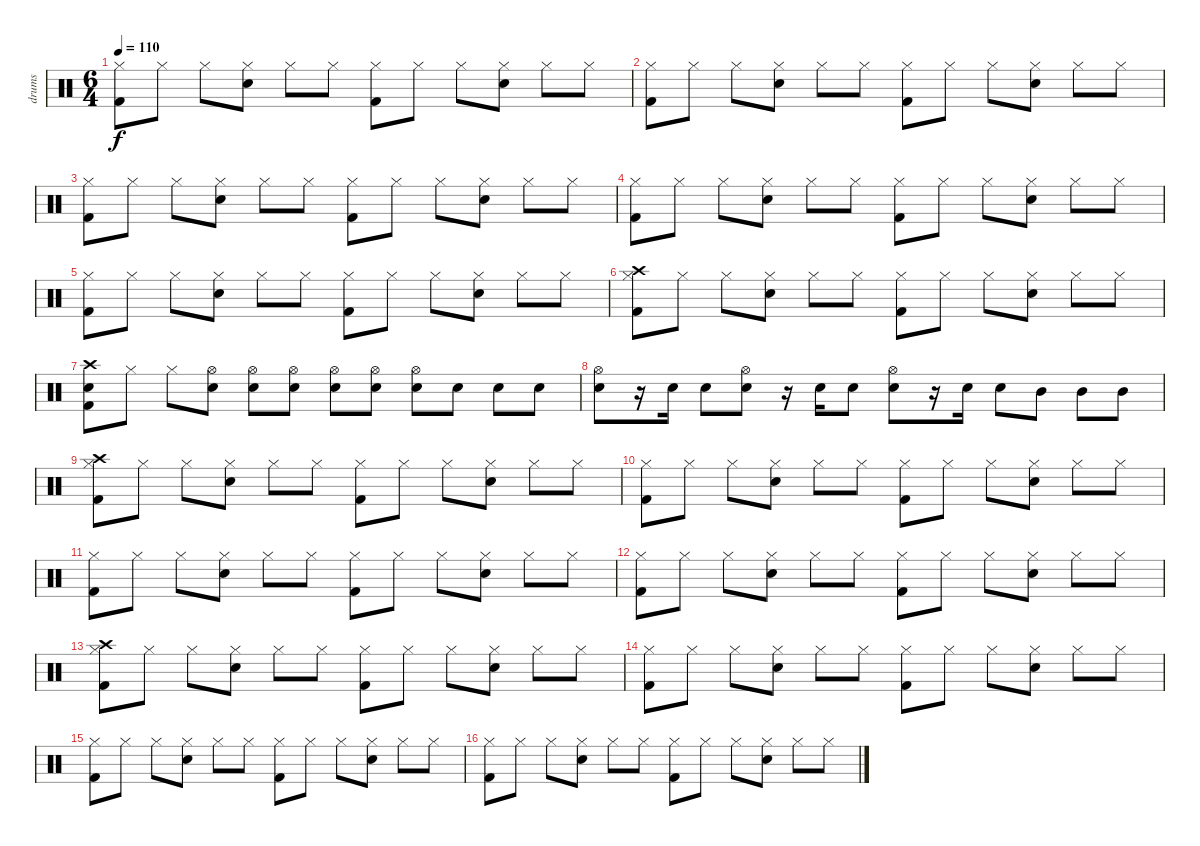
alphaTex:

\track ("drums" "drums") {instrument percussion}
\staff {score}
\articulation defaults
\ts (6 4)
\tempo 110
\clef neutral
\ks c
("Hi-Hat (closed)" "Kick (hit) 2").8{dy f} "Hi-Hat (closed)".8 "Hi-Hat (closed)".8 ("Hi-Hat (closed)" "Snare (hit) 2").8 "Hi-Hat (closed)".8 "Hi-Hat (closed)".8 ("Hi-Hat (closed)" "Kick (hit) 2").8 "Hi-Hat (closed)".8 "Hi-Hat (closed)".8 ("Hi-Hat (closed)" "Snare (hit) 2").8 "Hi-Hat (closed)".8 "Hi-Hat (closed)".8 |
("Hi-Hat (closed)" "Kick (hit) 2").8 "Hi-Hat (closed)".8 "Hi-Hat (closed)".8 ("Hi-Hat (closed)" "Snare (hit) 2").8 "Hi-Hat (closed)".8 "Hi-Hat (closed)".8 ("Hi-Hat (closed)" "Kick (hit) 2").8 "Hi-Hat (closed)".8 "Hi-Hat (closed)".8 ("Hi-Hat (closed)" "Snare (hit) 2").8 "Hi-Hat (closed)".8 "Hi-Hat (closed)".8 |
("Hi-Hat (closed)" "Kick (hit) 2").8 "Hi-Hat (closed)".8 "Hi-Hat (closed)".8 ("Hi-Hat (closed)" "Snare (hit) 2").8 "Hi-Hat (closed)".8 "Hi-Hat (closed)".8 ("Hi-Hat (closed)" "Kick (hit) 2").8 "Hi-Hat (closed)".8 "Hi-Hat (closed)".8 ("Hi-Hat (closed)" "Snare (hit) 2").8 "Hi-Hat (closed)".8 "Hi-Hat (closed)".8 |
("Hi-Hat (closed)" "Kick (hit) 2").8 "Hi-Hat (closed)".8 "Hi-Hat (closed)".8 ("Hi-Hat (closed)" "Snare (hit) 2").8 "Hi-Hat (closed)".8 "Hi-Hat (closed)".8 ("Hi-Hat (closed)" "Kick (hit) 2").8 "Hi-Hat (closed)".8 "Hi-Hat (closed)".8 ("Hi-Hat (closed)" "Snare (hit) 2").8 "Hi-Hat (closed)".8 "Hi-Hat (closed)".8 |
("Hi-Hat (closed)" "Kick (hit) 2").8 "Hi-Hat (closed)".8 "Hi-Hat (closed)".8 ("Hi-Hat (closed)" "Snare (hit) 2").8 "Hi-Hat (closed)".8 "Hi-Hat (closed)".8 ("Hi-Hat (closed)" "Kick (hit) 2").8 "Hi-Hat (closed)".8 "Hi-Hat (closed)".8 ("Hi-Hat (closed)" "Snare (hit) 2").8 "Hi-Hat (closed)".8 "Hi-Hat (closed)".8 |
("Hi-Hat (closed)" "Kick (hit) 2" "Crash high (hit)").8 "Hi-Hat (closed)".8 "Hi-Hat (closed)".8 ("Hi-Hat (closed)" "Snare (hit) 2").8 "Hi-Hat (closed)".8 "Hi-Hat (closed)".8 ("Hi-Hat (closed)" "Kick (hit) 2").8 "Hi-Hat (closed)".8 "Hi-Hat (closed)".8 ("Hi-Hat (closed)" "Snare (hit) 2").8 "Hi-Hat (closed)".8 "Hi-Hat (closed)".8 |
("Electric Snare (hit)" "Kick (hit) 2" "Crash high (hit)").8 "Hi-Hat (closed)".8 "Hi-Hat (closed)".8 ("Hi-Hat (open)" "Snare (hit) 2").8 ("Hi-Hat (open)" "Snare (hit) 2").8 ("Hi-Hat (open)" "Snare (hit) 2").8 ("Hi-Hat (open)" "Snare (hit) 2").8 ("Hi-Hat (open)" "Snare (hit) 2").8 ("Hi-Hat (open)" "Snare (hit) 2").8 "Snare (hit) 2".8 "Snare (hit) 2".8 "Snare (hit) 2".8 |
("Hi-Hat (open)" "Snare (hit) 2").8 r.16 "Snare (hit) 2".16 "Snare (hit) 2".8 ("Hi-Hat (open)" "Snare (hit) 2").8 r.16 "Snare (hit) 2".16 "Snare (hit) 2".8 ("Hi-Hat (open)" "Snare (hit) 2").8 r.16 "Snare (hit) 2".16 "Snare (hit) 2".8 "Mid Tom (hit)".8 "Mid Tom (hit)".8 "Mid Tom (hit)".8 |
("Hi-Hat (closed)" "Kick (hit) 2" "Crash high (hit)").8 "Hi-Hat (closed)".8 "Hi-Hat (closed)".8 ("Hi-Hat (closed)" "Snare (hit) 2").8 "Hi-Hat (closed)".8 "Hi-Hat (closed)".8 ("Hi-Hat (closed)" "Kick (hit) 2").8 "Hi-Hat (closed)".8 "Hi-Hat (closed)".8 ("Hi-Hat (closed)" "Snare (hit) 2").8 "Hi-Hat (closed)".8 "Hi-Hat (closed)".8 |
("Hi-Hat (closed)" "Kick (hit) 2").8 "Hi-Hat (closed)".8 "Hi-Hat (closed)".8 ("Hi-Hat (closed)" "Snare (hit) 2").8 "Hi-Hat (closed)".8 "Hi-Hat (closed)".8 ("Hi-Hat (closed)" "Kick (hit) 2").8 "Hi-Hat (closed)".8 "Hi-Hat (closed)".8 ("Hi-Hat (closed)" "Snare (hit) 2").8 "Hi-Hat (closed)".8 "Hi-Hat (closed)".8 |
("Hi-Hat (closed)" "Kick (hit) 2").8 "Hi-Hat (closed)".8 "Hi-Hat (closed)".8 ("Hi-Hat (closed)" "Snare (hit) 2").8 "Hi-Hat (closed)".8 "Hi-Hat (closed)".8 ("Hi-Hat (closed)" "Kick (hit) 2").8 "Hi-Hat (closed)".8 "Hi-Hat (closed)".8 ("Hi-Hat (closed)" "Snare (hit) 2").8 "Hi-Hat (closed)".8 "Hi-Hat (closed)".8 |
("Hi-Hat (closed)" "Kick (hit) 2").8 "Hi-Hat (closed)".8 "Hi-Hat (closed)".8 ("Hi-Hat (closed)" "Snare (hit) 2").8 "Hi-Hat (closed)".8 "Hi-Hat (closed)".8 ("Hi-Hat (closed)" "Kick (hit) 2").8 "Hi-Hat (closed)".8 "Hi-Hat (closed)".8 ("Hi-Hat (closed)" "Snare (hit) 2").8 "Hi-Hat (closed)".8 "Hi-Hat (closed)".8 |
("Hi-Hat (closed)" "Kick (hit) 2" "Crash high (hit)").8 "Hi-Hat (closed)".8 "Hi-Hat (closed)".8 ("Hi-Hat (closed)" "Snare (hit) 2").8 "Hi-Hat (closed)".8 "Hi-Hat (closed)".8 ("Hi-Hat (closed)" "Kick (hit) 2").8 "Hi-Hat (closed)".8 "Hi-Hat (closed)".8 ("Hi-Hat (closed)" "Snare (hit) 2").8 "Hi-Hat (closed)".8 "Hi-Hat (closed)".8 |
("Hi-Hat (closed)" "Kick (hit) 2").8 "Hi-Hat (closed)".8 "Hi-Hat (closed)".8 ("Hi-Hat (closed)" "Snare (hit) 2").8 "Hi-Hat (closed)".8 "Hi-Hat (closed)".8 ("Hi-Hat (closed)" "Kick (hit) 2").8 "Hi-Hat (closed)".8 "Hi-Hat (closed)".8 ("Hi-Hat (closed)" "Snare (hit) 2").8 "Hi-Hat (closed)".8 "Hi-Hat (closed)".8 |
("Hi-Hat (closed)" "Kick (hit) 2").8 "Hi-Hat (closed)".8 "Hi-Hat (closed)".8 ("Hi-Hat (closed)" "Snare (hit) 2").8 "Hi-Hat (closed)".8 "Hi-Hat (closed)".8 ("Hi-Hat (closed)" "Kick (hit) 2").8 "Hi-Hat (closed)".8 "Hi-Hat (closed)".8 ("Hi-Hat (closed)" "Snare (hit) 2").8 "Hi-Hat (closed)".8 "Hi-Hat (closed)".8 |
("Hi-Hat (closed)" "Kick (hit) 2").8 "Hi-Hat (closed)".8 "Hi-Hat (closed)".8 ("Hi-Hat (closed)" "Snare (hit) 2").8 "Hi-Hat (closed)".8 "Hi-Hat (closed)".8 ("Hi-Hat (closed)" "Kick (hit) 2").8 "Hi-Hat (closed)".8 "Hi-Hat (closed)".8 ("Hi-Hat (closed)" "Snare (hit) 2").8 "Hi-Hat (closed)".8 "Hi-Hat (closed)".8
